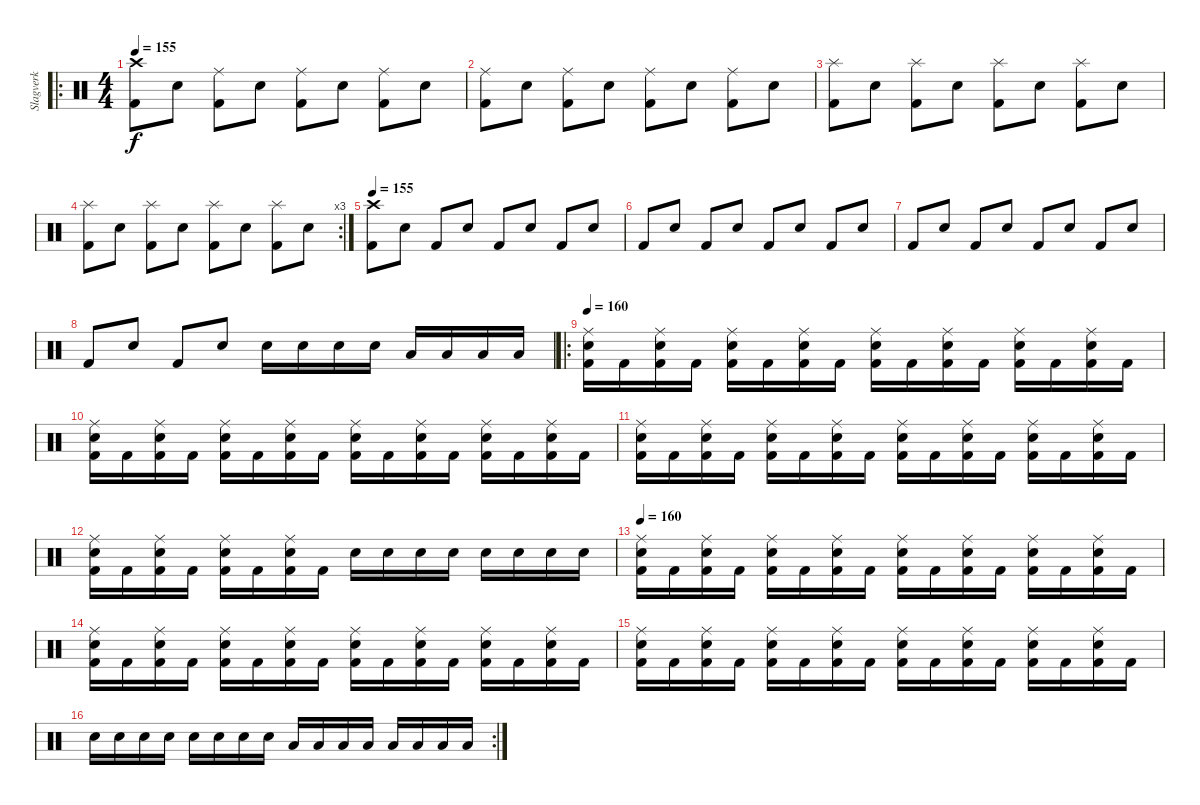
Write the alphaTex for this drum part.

\track ("Slagverk" "Slagverk") {instrument percussion}
\staff {score}
\articulation defaults
\ro
\ts (4 4)
\tempo 155
\clef neutral
\ks c
("Crash high (hit)" "Kick (hit) 2").8{dy f} "Electric Snare (hit)".8 ("Ride (middle)" "Kick (hit) 2").8 "Electric Snare (hit)".8 ("Ride (middle)" "Kick (hit) 2").8 "Electric Snare (hit)".8 ("Ride (middle)" "Kick (hit) 2").8 "Electric Snare (hit)".8 |
("Ride (middle)" "Kick (hit) 2").8 "Electric Snare (hit)".8 ("Ride (middle)" "Kick (hit) 2").8 "Electric Snare (hit)".8 ("Ride (middle)" "Kick (hit) 2").8 "Electric Snare (hit)".8 ("Ride (middle)" "Kick (hit) 2").8 "Electric Snare (hit)".8 |
("Splash (hit)" "Kick (hit) 2").8 "Electric Snare (hit)".8 ("Splash (hit)" "Kick (hit) 2").8 "Electric Snare (hit)".8 ("Splash (hit)" "Kick (hit) 2").8 "Electric Snare (hit)".8 ("Splash (hit)" "Kick (hit) 2").8 "Electric Snare (hit)".8 |
\rc 3
("Splash (hit)" "Kick (hit) 2").8 "Electric Snare (hit)".8 ("Splash (hit)" "Kick (hit) 2").8 "Electric Snare (hit)".8 ("Splash (hit)" "Kick (hit) 2").8 "Electric Snare (hit)".8 ("Splash (hit)" "Kick (hit) 2").8 "Electric Snare (hit)".8 |
\tempo 155
("Crash high (hit)" "Kick (hit) 2").8 "Electric Snare (hit)".8 "Kick (hit) 2".8 "Electric Snare (hit)".8 "Kick (hit) 2".8 "Electric Snare (hit)".8 "Kick (hit) 2".8 "Electric Snare (hit)".8 |
"Kick (hit) 2".8 "Electric Snare (hit)".8 "Kick (hit) 2".8 "Electric Snare (hit)".8 "Kick (hit) 2".8 "Electric Snare (hit)".8 "Kick (hit) 2".8 "Electric Snare (hit)".8 |
"Kick (hit) 2".8 "Electric Snare (hit)".8 "Kick (hit) 2".8 "Electric Snare (hit)".8 "Kick (hit) 2".8 "Electric Snare (hit)".8 "Kick (hit) 2".8 "Electric Snare (hit)".8 |
"Kick (hit) 2".8 "Electric Snare (hit)".8 "Kick (hit) 2".8 "Electric Snare (hit)".8 "Electric Snare (hit)".16 "Electric Snare (hit)".16 "Electric Snare (hit)".16 "Electric Snare (hit)".16 "Low Tom (hit)".16 "Low Tom (hit)".16 "Low Tom (hit)".16 "Low Tom (hit)".16 |
\ro
\tempo 160
("Ride (middle)" "Electric Snare (hit)" "Kick (hit) 2").16 "Kick (hit) 2".16 ("Ride (middle)" "Electric Snare (hit)" "Kick (hit) 2").16 "Kick (hit) 2".16 ("Ride (middle)" "Electric Snare (hit)" "Kick (hit) 2").16 "Kick (hit) 2".16 ("Ride (middle)" "Electric Snare (hit)" "Kick (hit) 2").16 "Kick (hit) 2".16 ("Ride (middle)" "Electric Snare (hit)" "Kick (hit) 2").16 "Kick (hit) 2".16 ("Ride (middle)" "Electric Snare (hit)" "Kick (hit) 2").16 "Kick (hit) 2".16 ("Ride (middle)" "Electric Snare (hit)" "Kick (hit) 2").16 "Kick (hit) 2".16 ("Ride (middle)" "Electric Snare (hit)" "Kick (hit) 2").16 "Kick (hit) 2".16 |
("Ride (middle)" "Electric Snare (hit)" "Kick (hit) 2").16 "Kick (hit) 2".16 ("Ride (middle)" "Electric Snare (hit)" "Kick (hit) 2").16 "Kick (hit) 2".16 ("Ride (middle)" "Electric Snare (hit)" "Kick (hit) 2").16 "Kick (hit) 2".16 ("Ride (middle)" "Electric Snare (hit)" "Kick (hit) 2").16 "Kick (hit) 2".16 ("Ride (middle)" "Electric Snare (hit)" "Kick (hit) 2").16 "Kick (hit) 2".16 ("Ride (middle)" "Electric Snare (hit)" "Kick (hit) 2").16 "Kick (hit) 2".16 ("Ride (middle)" "Electric Snare (hit)" "Kick (hit) 2").16 "Kick (hit) 2".16 ("Ride (middle)" "Electric Snare (hit)" "Kick (hit) 2").16 "Kick (hit) 2".16 |
("Ride (middle)" "Electric Snare (hit)" "Kick (hit) 2").16 "Kick (hit) 2".16 ("Ride (middle)" "Electric Snare (hit)" "Kick (hit) 2").16 "Kick (hit) 2".16 ("Ride (middle)" "Electric Snare (hit)" "Kick (hit) 2").16 "Kick (hit) 2".16 ("Ride (middle)" "Electric Snare (hit)" "Kick (hit) 2").16 "Kick (hit) 2".16 ("Ride (middle)" "Electric Snare (hit)" "Kick (hit) 2").16 "Kick (hit) 2".16 ("Ride (middle)" "Electric Snare (hit)" "Kick (hit) 2").16 "Kick (hit) 2".16 ("Ride (middle)" "Electric Snare (hit)" "Kick (hit) 2").16 "Kick (hit) 2".16 ("Ride (middle)" "Electric Snare (hit)" "Kick (hit) 2").16 "Kick (hit) 2".16 |
("Ride (middle)" "Electric Snare (hit)" "Kick (hit) 2").16 "Kick (hit) 2".16 ("Ride (middle)" "Electric Snare (hit)" "Kick (hit) 2").16 "Kick (hit) 2".16 ("Ride (middle)" "Electric Snare (hit)" "Kick (hit) 2").16 "Kick (hit) 2".16 ("Ride (middle)" "Electric Snare (hit)" "Kick (hit) 2").16 "Kick (hit) 2".16 "Electric Snare (hit)".16 "Electric Snare (hit)".16 "Electric Snare (hit)".16 "Electric Snare (hit)".16 "Electric Snare (hit)".16 "Electric Snare (hit)".16 "Electric Snare (hit)".16 "Electric Snare (hit)".16 |
\tempo 160
("Ride (middle)" "Electric Snare (hit)" "Kick (hit) 2").16 "Kick (hit) 2".16 ("Ride (middle)" "Electric Snare (hit)" "Kick (hit) 2").16 "Kick (hit) 2".16 ("Ride (middle)" "Electric Snare (hit)" "Kick (hit) 2").16 "Kick (hit) 2".16 ("Ride (middle)" "Electric Snare (hit)" "Kick (hit) 2").16 "Kick (hit) 2".16 ("Ride (middle)" "Electric Snare (hit)" "Kick (hit) 2").16 "Kick (hit) 2".16 ("Ride (middle)" "Electric Snare (hit)" "Kick (hit) 2").16 "Kick (hit) 2".16 ("Ride (middle)" "Electric Snare (hit)" "Kick (hit) 2").16 "Kick (hit) 2".16 ("Ride (middle)" "Electric Snare (hit)" "Kick (hit) 2").16 "Kick (hit) 2".16 |
("Ride (middle)" "Electric Snare (hit)" "Kick (hit) 2").16 "Kick (hit) 2".16 ("Ride (middle)" "Electric Snare (hit)" "Kick (hit) 2").16 "Kick (hit) 2".16 ("Ride (middle)" "Electric Snare (hit)" "Kick (hit) 2").16 "Kick (hit) 2".16 ("Ride (middle)" "Electric Snare (hit)" "Kick (hit) 2").16 "Kick (hit) 2".16 ("Ride (middle)" "Electric Snare (hit)" "Kick (hit) 2").16 "Kick (hit) 2".16 ("Ride (middle)" "Electric Snare (hit)" "Kick (hit) 2").16 "Kick (hit) 2".16 ("Ride (middle)" "Electric Snare (hit)" "Kick (hit) 2").16 "Kick (hit) 2".16 ("Ride (middle)" "Electric Snare (hit)" "Kick (hit) 2").16 "Kick (hit) 2".16 |
("Ride (middle)" "Electric Snare (hit)" "Kick (hit) 2").16 "Kick (hit) 2".16 ("Ride (middle)" "Electric Snare (hit)" "Kick (hit) 2").16 "Kick (hit) 2".16 ("Ride (middle)" "Electric Snare (hit)" "Kick (hit) 2").16 "Kick (hit) 2".16 ("Ride (middle)" "Electric Snare (hit)" "Kick (hit) 2").16 "Kick (hit) 2".16 ("Ride (middle)" "Electric Snare (hit)" "Kick (hit) 2").16 "Kick (hit) 2".16 ("Ride (middle)" "Electric Snare (hit)" "Kick (hit) 2").16 "Kick (hit) 2".16 ("Ride (middle)" "Electric Snare (hit)" "Kick (hit) 2").16 "Kick (hit) 2".16 ("Ride (middle)" "Electric Snare (hit)" "Kick (hit) 2").16 "Kick (hit) 2".16 |
\rc 2 "Electric Snare (hit)".16 "Electric Snare (hit)".16 "Electric Snare (hit)".16 "Electric Snare (hit)".16 "Electric Snare (hit)".16 "Electric Snare (hit)".16 "Electric Snare (hit)".16 "Electric Snare (hit)".16 "Low Tom (hit)".16 "Low Tom (hit)".16 "Low Tom (hit)".16 "Low Tom (hit)".16 "Low Tom (hit)".16 "Low Tom (hit)".16 "Low Tom (hit)".16 "Low Tom (hit)".16
